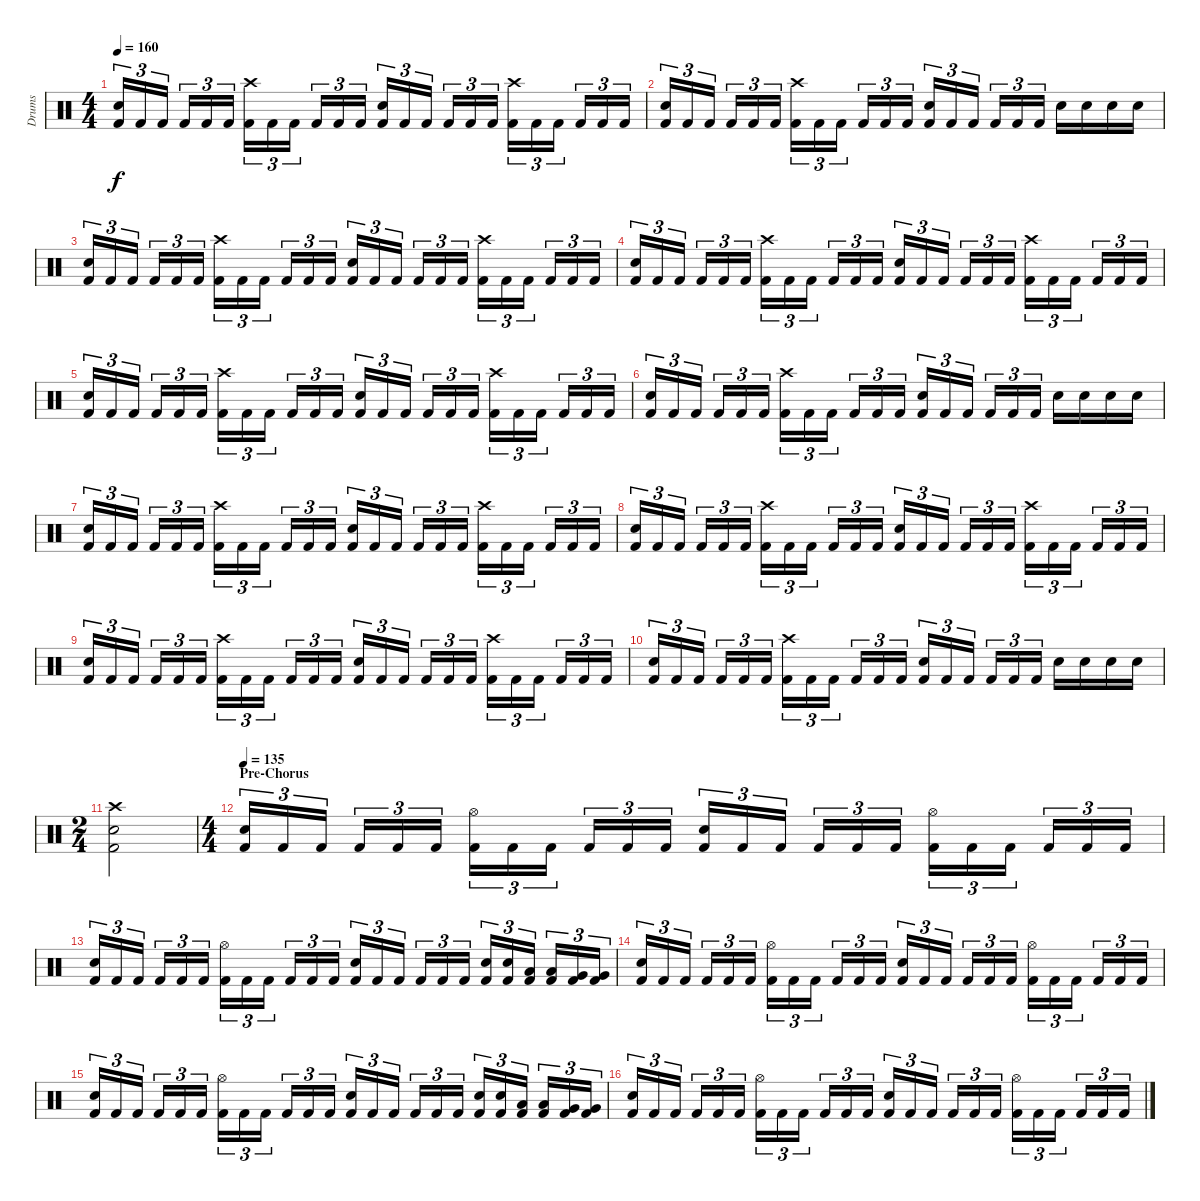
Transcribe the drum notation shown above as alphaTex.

\track ("Drums" "Drums") {instrument percussion}
\staff {score}
\articulation defaults
\ts (4 4)
\tempo 160
\clef neutral
\ks c
("Kick (hit) 2" "Electric Snare (hit)").16{tu (3 2) dy f} "Kick (hit) 2".16{tu (3 2)} "Kick (hit) 2".16{tu (3 2)} "Kick (hit) 2".16{tu (3 2)} "Kick (hit) 2".16{tu (3 2)} "Kick (hit) 2".16{tu (3 2)} ("Kick (hit) 2" "Crash high (hit)").16{tu (3 2)} "Kick (hit) 2".16{tu (3 2)} "Kick (hit) 2".16{tu (3 2)} "Kick (hit) 2".16{tu (3 2)} "Kick (hit) 2".16{tu (3 2)} "Kick (hit) 2".16{tu (3 2)} ("Kick (hit) 2" "Electric Snare (hit)").16{tu (3 2)} "Kick (hit) 2".16{tu (3 2)} "Kick (hit) 2".16{tu (3 2)} "Kick (hit) 2".16{tu (3 2)} "Kick (hit) 2".16{tu (3 2)} "Kick (hit) 2".16{tu (3 2)} ("Kick (hit) 2" "Crash high (hit)").16{tu (3 2)} "Kick (hit) 2".16{tu (3 2)} "Kick (hit) 2".16{tu (3 2)} "Kick (hit) 2".16{tu (3 2)} "Kick (hit) 2".16{tu (3 2)} "Kick (hit) 2".16{tu (3 2)} |
("Kick (hit) 2" "Electric Snare (hit)").16{tu (3 2)} "Kick (hit) 2".16{tu (3 2)} "Kick (hit) 2".16{tu (3 2)} "Kick (hit) 2".16{tu (3 2)} "Kick (hit) 2".16{tu (3 2)} "Kick (hit) 2".16{tu (3 2)} ("Kick (hit) 2" "Crash high (hit)").16{tu (3 2)} "Kick (hit) 2".16{tu (3 2)} "Kick (hit) 2".16{tu (3 2)} "Kick (hit) 2".16{tu (3 2)} "Kick (hit) 2".16{tu (3 2)} "Kick (hit) 2".16{tu (3 2)} ("Kick (hit) 2" "Electric Snare (hit)").16{tu (3 2)} "Kick (hit) 2".16{tu (3 2)} "Kick (hit) 2".16{tu (3 2)} "Kick (hit) 2".16{tu (3 2)} "Kick (hit) 2".16{tu (3 2)} "Kick (hit) 2".16{tu (3 2)} "Electric Snare (hit)".16 "Electric Snare (hit)".16 "Electric Snare (hit)".16 "Electric Snare (hit)".16 |
("Kick (hit) 2" "Electric Snare (hit)").16{tu (3 2)} "Kick (hit) 2".16{tu (3 2)} "Kick (hit) 2".16{tu (3 2)} "Kick (hit) 2".16{tu (3 2)} "Kick (hit) 2".16{tu (3 2)} "Kick (hit) 2".16{tu (3 2)} ("Kick (hit) 2" "Crash high (hit)").16{tu (3 2)} "Kick (hit) 2".16{tu (3 2)} "Kick (hit) 2".16{tu (3 2)} "Kick (hit) 2".16{tu (3 2)} "Kick (hit) 2".16{tu (3 2)} "Kick (hit) 2".16{tu (3 2)} ("Kick (hit) 2" "Electric Snare (hit)").16{tu (3 2)} "Kick (hit) 2".16{tu (3 2)} "Kick (hit) 2".16{tu (3 2)} "Kick (hit) 2".16{tu (3 2)} "Kick (hit) 2".16{tu (3 2)} "Kick (hit) 2".16{tu (3 2)} ("Kick (hit) 2" "Crash high (hit)").16{tu (3 2)} "Kick (hit) 2".16{tu (3 2)} "Kick (hit) 2".16{tu (3 2)} "Kick (hit) 2".16{tu (3 2)} "Kick (hit) 2".16{tu (3 2)} "Kick (hit) 2".16{tu (3 2)} |
("Kick (hit) 2" "Electric Snare (hit)").16{tu (3 2)} "Kick (hit) 2".16{tu (3 2)} "Kick (hit) 2".16{tu (3 2)} "Kick (hit) 2".16{tu (3 2)} "Kick (hit) 2".16{tu (3 2)} "Kick (hit) 2".16{tu (3 2)} ("Kick (hit) 2" "Crash high (hit)").16{tu (3 2)} "Kick (hit) 2".16{tu (3 2)} "Kick (hit) 2".16{tu (3 2)} "Kick (hit) 2".16{tu (3 2)} "Kick (hit) 2".16{tu (3 2)} "Kick (hit) 2".16{tu (3 2)} ("Kick (hit) 2" "Electric Snare (hit)").16{tu (3 2)} "Kick (hit) 2".16{tu (3 2)} "Kick (hit) 2".16{tu (3 2)} "Kick (hit) 2".16{tu (3 2)} "Kick (hit) 2".16{tu (3 2)} "Kick (hit) 2".16{tu (3 2)} ("Kick (hit) 2" "Crash high (hit)").16{tu (3 2)} "Kick (hit) 2".16{tu (3 2)} "Kick (hit) 2".16{tu (3 2)} "Kick (hit) 2".16{tu (3 2)} "Kick (hit) 2".16{tu (3 2)} "Kick (hit) 2".16{tu (3 2)} |
("Kick (hit) 2" "Electric Snare (hit)").16{tu (3 2)} "Kick (hit) 2".16{tu (3 2)} "Kick (hit) 2".16{tu (3 2)} "Kick (hit) 2".16{tu (3 2)} "Kick (hit) 2".16{tu (3 2)} "Kick (hit) 2".16{tu (3 2)} ("Kick (hit) 2" "Crash high (hit)").16{tu (3 2)} "Kick (hit) 2".16{tu (3 2)} "Kick (hit) 2".16{tu (3 2)} "Kick (hit) 2".16{tu (3 2)} "Kick (hit) 2".16{tu (3 2)} "Kick (hit) 2".16{tu (3 2)} ("Kick (hit) 2" "Electric Snare (hit)").16{tu (3 2)} "Kick (hit) 2".16{tu (3 2)} "Kick (hit) 2".16{tu (3 2)} "Kick (hit) 2".16{tu (3 2)} "Kick (hit) 2".16{tu (3 2)} "Kick (hit) 2".16{tu (3 2)} ("Kick (hit) 2" "Crash high (hit)").16{tu (3 2)} "Kick (hit) 2".16{tu (3 2)} "Kick (hit) 2".16{tu (3 2)} "Kick (hit) 2".16{tu (3 2)} "Kick (hit) 2".16{tu (3 2)} "Kick (hit) 2".16{tu (3 2)} |
("Kick (hit) 2" "Electric Snare (hit)").16{tu (3 2)} "Kick (hit) 2".16{tu (3 2)} "Kick (hit) 2".16{tu (3 2)} "Kick (hit) 2".16{tu (3 2)} "Kick (hit) 2".16{tu (3 2)} "Kick (hit) 2".16{tu (3 2)} ("Kick (hit) 2" "Crash high (hit)").16{tu (3 2)} "Kick (hit) 2".16{tu (3 2)} "Kick (hit) 2".16{tu (3 2)} "Kick (hit) 2".16{tu (3 2)} "Kick (hit) 2".16{tu (3 2)} "Kick (hit) 2".16{tu (3 2)} ("Kick (hit) 2" "Electric Snare (hit)").16{tu (3 2)} "Kick (hit) 2".16{tu (3 2)} "Kick (hit) 2".16{tu (3 2)} "Kick (hit) 2".16{tu (3 2)} "Kick (hit) 2".16{tu (3 2)} "Kick (hit) 2".16{tu (3 2)} "Electric Snare (hit)".16 "Electric Snare (hit)".16 "Electric Snare (hit)".16 "Electric Snare (hit)".16 |
("Kick (hit) 2" "Electric Snare (hit)").16{tu (3 2)} "Kick (hit) 2".16{tu (3 2)} "Kick (hit) 2".16{tu (3 2)} "Kick (hit) 2".16{tu (3 2)} "Kick (hit) 2".16{tu (3 2)} "Kick (hit) 2".16{tu (3 2)} ("Kick (hit) 2" "Crash high (hit)").16{tu (3 2)} "Kick (hit) 2".16{tu (3 2)} "Kick (hit) 2".16{tu (3 2)} "Kick (hit) 2".16{tu (3 2)} "Kick (hit) 2".16{tu (3 2)} "Kick (hit) 2".16{tu (3 2)} ("Kick (hit) 2" "Electric Snare (hit)").16{tu (3 2)} "Kick (hit) 2".16{tu (3 2)} "Kick (hit) 2".16{tu (3 2)} "Kick (hit) 2".16{tu (3 2)} "Kick (hit) 2".16{tu (3 2)} "Kick (hit) 2".16{tu (3 2)} ("Kick (hit) 2" "Crash high (hit)").16{tu (3 2)} "Kick (hit) 2".16{tu (3 2)} "Kick (hit) 2".16{tu (3 2)} "Kick (hit) 2".16{tu (3 2)} "Kick (hit) 2".16{tu (3 2)} "Kick (hit) 2".16{tu (3 2)} |
("Kick (hit) 2" "Electric Snare (hit)").16{tu (3 2)} "Kick (hit) 2".16{tu (3 2)} "Kick (hit) 2".16{tu (3 2)} "Kick (hit) 2".16{tu (3 2)} "Kick (hit) 2".16{tu (3 2)} "Kick (hit) 2".16{tu (3 2)} ("Kick (hit) 2" "Crash high (hit)").16{tu (3 2)} "Kick (hit) 2".16{tu (3 2)} "Kick (hit) 2".16{tu (3 2)} "Kick (hit) 2".16{tu (3 2)} "Kick (hit) 2".16{tu (3 2)} "Kick (hit) 2".16{tu (3 2)} ("Kick (hit) 2" "Electric Snare (hit)").16{tu (3 2)} "Kick (hit) 2".16{tu (3 2)} "Kick (hit) 2".16{tu (3 2)} "Kick (hit) 2".16{tu (3 2)} "Kick (hit) 2".16{tu (3 2)} "Kick (hit) 2".16{tu (3 2)} ("Kick (hit) 2" "Crash high (hit)").16{tu (3 2)} "Kick (hit) 2".16{tu (3 2)} "Kick (hit) 2".16{tu (3 2)} "Kick (hit) 2".16{tu (3 2)} "Kick (hit) 2".16{tu (3 2)} "Kick (hit) 2".16{tu (3 2)} |
("Kick (hit) 2" "Electric Snare (hit)").16{tu (3 2)} "Kick (hit) 2".16{tu (3 2)} "Kick (hit) 2".16{tu (3 2)} "Kick (hit) 2".16{tu (3 2)} "Kick (hit) 2".16{tu (3 2)} "Kick (hit) 2".16{tu (3 2)} ("Kick (hit) 2" "Crash high (hit)").16{tu (3 2)} "Kick (hit) 2".16{tu (3 2)} "Kick (hit) 2".16{tu (3 2)} "Kick (hit) 2".16{tu (3 2)} "Kick (hit) 2".16{tu (3 2)} "Kick (hit) 2".16{tu (3 2)} ("Kick (hit) 2" "Electric Snare (hit)").16{tu (3 2)} "Kick (hit) 2".16{tu (3 2)} "Kick (hit) 2".16{tu (3 2)} "Kick (hit) 2".16{tu (3 2)} "Kick (hit) 2".16{tu (3 2)} "Kick (hit) 2".16{tu (3 2)} ("Kick (hit) 2" "Crash high (hit)").16{tu (3 2)} "Kick (hit) 2".16{tu (3 2)} "Kick (hit) 2".16{tu (3 2)} "Kick (hit) 2".16{tu (3 2)} "Kick (hit) 2".16{tu (3 2)} "Kick (hit) 2".16{tu (3 2)} |
("Kick (hit) 2" "Electric Snare (hit)").16{tu (3 2)} "Kick (hit) 2".16{tu (3 2)} "Kick (hit) 2".16{tu (3 2)} "Kick (hit) 2".16{tu (3 2)} "Kick (hit) 2".16{tu (3 2)} "Kick (hit) 2".16{tu (3 2)} ("Kick (hit) 2" "Crash high (hit)").16{tu (3 2)} "Kick (hit) 2".16{tu (3 2)} "Kick (hit) 2".16{tu (3 2)} "Kick (hit) 2".16{tu (3 2)} "Kick (hit) 2".16{tu (3 2)} "Kick (hit) 2".16{tu (3 2)} ("Kick (hit) 2" "Electric Snare (hit)").16{tu (3 2)} "Kick (hit) 2".16{tu (3 2)} "Kick (hit) 2".16{tu (3 2)} "Kick (hit) 2".16{tu (3 2)} "Kick (hit) 2".16{tu (3 2)} "Kick (hit) 2".16{tu (3 2)} "Electric Snare (hit)".16 "Electric Snare (hit)".16 "Electric Snare (hit)".16 "Electric Snare (hit)".16 |
\ts (2 4)
("Crash high (hit)" "Electric Snare (hit)" "Kick (hit) 2").2 |
\ts (4 4)
\section ("" "Pre-Chorus")
\tempo 135
("Kick (hit) 2" "Electric Snare (hit)").16{tu (3 2)} "Kick (hit) 2".16{tu (3 2)} "Kick (hit) 2".16{tu (3 2)} "Kick (hit) 2".16{tu (3 2)} "Kick (hit) 2".16{tu (3 2)} "Kick (hit) 2".16{tu (3 2)} ("Kick (hit) 2" "Hi-Hat (open)").16{tu (3 2)} "Kick (hit) 2".16{tu (3 2)} "Kick (hit) 2".16{tu (3 2)} "Kick (hit) 2".16{tu (3 2)} "Kick (hit) 2".16{tu (3 2)} "Kick (hit) 2".16{tu (3 2)} ("Kick (hit) 2" "Electric Snare (hit)").16{tu (3 2)} "Kick (hit) 2".16{tu (3 2)} "Kick (hit) 2".16{tu (3 2)} "Kick (hit) 2".16{tu (3 2)} "Kick (hit) 2".16{tu (3 2)} "Kick (hit) 2".16{tu (3 2)} ("Kick (hit) 2" "Hi-Hat (open)").16{tu (3 2)} "Kick (hit) 2".16{tu (3 2)} "Kick (hit) 2".16{tu (3 2)} "Kick (hit) 2".16{tu (3 2)} "Kick (hit) 2".16{tu (3 2)} "Kick (hit) 2".16{tu (3 2)} |
("Kick (hit) 2" "Electric Snare (hit)").16{tu (3 2)} "Kick (hit) 2".16{tu (3 2)} "Kick (hit) 2".16{tu (3 2)} "Kick (hit) 2".16{tu (3 2)} "Kick (hit) 2".16{tu (3 2)} "Kick (hit) 2".16{tu (3 2)} ("Kick (hit) 2" "Hi-Hat (open)").16{tu (3 2)} "Kick (hit) 2".16{tu (3 2)} "Kick (hit) 2".16{tu (3 2)} "Kick (hit) 2".16{tu (3 2)} "Kick (hit) 2".16{tu (3 2)} "Kick (hit) 2".16{tu (3 2)} ("Kick (hit) 2" "Electric Snare (hit)").16{tu (3 2)} "Kick (hit) 2".16{tu (3 2)} "Kick (hit) 2".16{tu (3 2)} "Kick (hit) 2".16{tu (3 2)} "Kick (hit) 2".16{tu (3 2)} "Kick (hit) 2".16{tu (3 2)} ("Kick (hit) 2" "Electric Snare (hit)").16{tu (3 2)} ("Kick (hit) 2" "Electric Snare (hit)").16{tu (3 2)} ("Kick (hit) 2" "Low Tom (hit)").16{tu (3 2)} ("Kick (hit) 2" "Low Tom (hit)").16{tu (3 2)} ("Kick (hit) 2" "Very Low Tom (hit)").16{tu (3 2)} ("Kick (hit) 2" "Very Low Tom (hit)").16{tu (3 2)} |
("Kick (hit) 2" "Electric Snare (hit)").16{tu (3 2)} "Kick (hit) 2".16{tu (3 2)} "Kick (hit) 2".16{tu (3 2)} "Kick (hit) 2".16{tu (3 2)} "Kick (hit) 2".16{tu (3 2)} "Kick (hit) 2".16{tu (3 2)} ("Kick (hit) 2" "Hi-Hat (open)").16{tu (3 2)} "Kick (hit) 2".16{tu (3 2)} "Kick (hit) 2".16{tu (3 2)} "Kick (hit) 2".16{tu (3 2)} "Kick (hit) 2".16{tu (3 2)} "Kick (hit) 2".16{tu (3 2)} ("Kick (hit) 2" "Electric Snare (hit)").16{tu (3 2)} "Kick (hit) 2".16{tu (3 2)} "Kick (hit) 2".16{tu (3 2)} "Kick (hit) 2".16{tu (3 2)} "Kick (hit) 2".16{tu (3 2)} "Kick (hit) 2".16{tu (3 2)} ("Kick (hit) 2" "Hi-Hat (open)").16{tu (3 2)} "Kick (hit) 2".16{tu (3 2)} "Kick (hit) 2".16{tu (3 2)} "Kick (hit) 2".16{tu (3 2)} "Kick (hit) 2".16{tu (3 2)} "Kick (hit) 2".16{tu (3 2)} |
("Kick (hit) 2" "Electric Snare (hit)").16{tu (3 2)} "Kick (hit) 2".16{tu (3 2)} "Kick (hit) 2".16{tu (3 2)} "Kick (hit) 2".16{tu (3 2)} "Kick (hit) 2".16{tu (3 2)} "Kick (hit) 2".16{tu (3 2)} ("Kick (hit) 2" "Hi-Hat (open)").16{tu (3 2)} "Kick (hit) 2".16{tu (3 2)} "Kick (hit) 2".16{tu (3 2)} "Kick (hit) 2".16{tu (3 2)} "Kick (hit) 2".16{tu (3 2)} "Kick (hit) 2".16{tu (3 2)} ("Kick (hit) 2" "Electric Snare (hit)").16{tu (3 2)} "Kick (hit) 2".16{tu (3 2)} "Kick (hit) 2".16{tu (3 2)} "Kick (hit) 2".16{tu (3 2)} "Kick (hit) 2".16{tu (3 2)} "Kick (hit) 2".16{tu (3 2)} ("Kick (hit) 2" "Electric Snare (hit)").16{tu (3 2)} ("Kick (hit) 2" "Electric Snare (hit)").16{tu (3 2)} ("Kick (hit) 2" "Low Tom (hit)").16{tu (3 2)} ("Kick (hit) 2" "Low Tom (hit)").16{tu (3 2)} ("Kick (hit) 2" "Very Low Tom (hit)").16{tu (3 2)} ("Kick (hit) 2" "Very Low Tom (hit)").16{tu (3 2)} |
("Kick (hit) 2" "Electric Snare (hit)").16{tu (3 2)} "Kick (hit) 2".16{tu (3 2)} "Kick (hit) 2".16{tu (3 2)} "Kick (hit) 2".16{tu (3 2)} "Kick (hit) 2".16{tu (3 2)} "Kick (hit) 2".16{tu (3 2)} ("Kick (hit) 2" "Hi-Hat (open)").16{tu (3 2)} "Kick (hit) 2".16{tu (3 2)} "Kick (hit) 2".16{tu (3 2)} "Kick (hit) 2".16{tu (3 2)} "Kick (hit) 2".16{tu (3 2)} "Kick (hit) 2".16{tu (3 2)} ("Kick (hit) 2" "Electric Snare (hit)").16{tu (3 2)} "Kick (hit) 2".16{tu (3 2)} "Kick (hit) 2".16{tu (3 2)} "Kick (hit) 2".16{tu (3 2)} "Kick (hit) 2".16{tu (3 2)} "Kick (hit) 2".16{tu (3 2)} ("Kick (hit) 2" "Hi-Hat (open)").16{tu (3 2)} "Kick (hit) 2".16{tu (3 2)} "Kick (hit) 2".16{tu (3 2)} "Kick (hit) 2".16{tu (3 2)} "Kick (hit) 2".16{tu (3 2)} "Kick (hit) 2".16{tu (3 2)}
